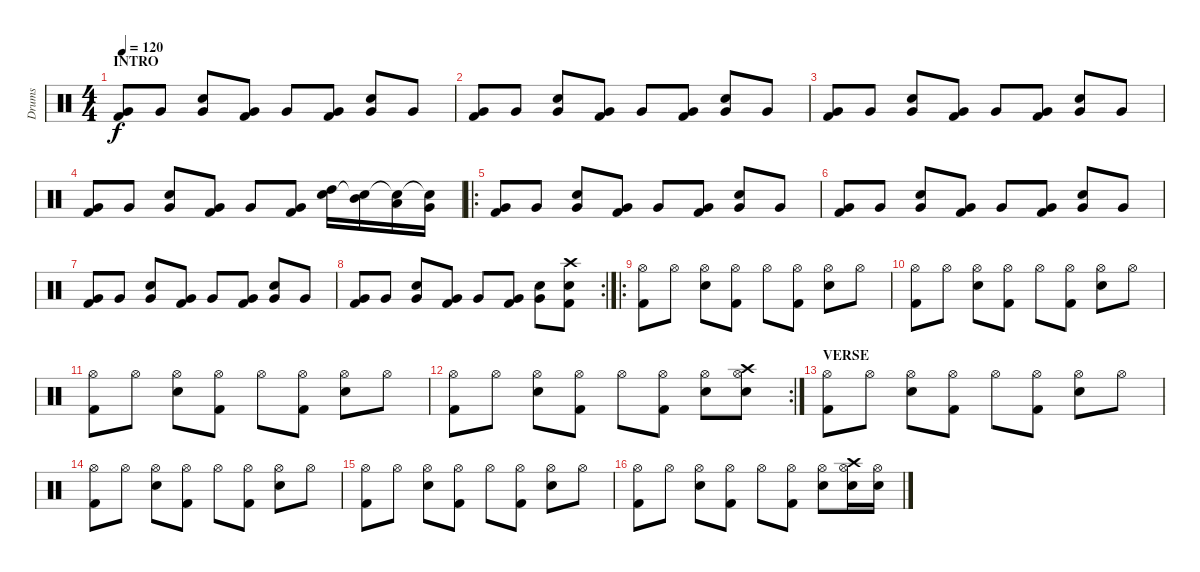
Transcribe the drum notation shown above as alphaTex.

\track ("Drums" "Drums") {instrument percussion}
\staff {score}
\articulation defaults
\ts (4 4)
\section ("" "INTRO")
\tempo 120
\clef neutral
\ks c
("Kick (hit) 2" "Very Low Tom (hit)").8{dy f} "Very Low Tom (hit)".8 ("Electric Snare (hit)" "Very Low Tom (hit)").8 ("Kick (hit) 2" "Very Low Tom (hit)").8 "Very Low Tom (hit)".8 ("Kick (hit) 2" "Very Low Tom (hit)").8 ("Electric Snare (hit)" "Very Low Tom (hit)").8 "Very Low Tom (hit)".8 |
("Kick (hit) 2" "Very Low Tom (hit)").8 "Very Low Tom (hit)".8 ("Electric Snare (hit)" "Very Low Tom (hit)").8 ("Kick (hit) 2" "Very Low Tom (hit)").8 "Very Low Tom (hit)".8 ("Kick (hit) 2" "Very Low Tom (hit)").8 ("Electric Snare (hit)" "Very Low Tom (hit)").8 "Very Low Tom (hit)".8 |
("Kick (hit) 2" "Very Low Tom (hit)").8 "Very Low Tom (hit)".8 ("Electric Snare (hit)" "Very Low Tom (hit)").8 ("Kick (hit) 2" "Very Low Tom (hit)").8 "Very Low Tom (hit)".8 ("Kick (hit) 2" "Very Low Tom (hit)").8 ("Electric Snare (hit)" "Very Low Tom (hit)").8 "Very Low Tom (hit)".8 |
("Kick (hit) 2" "Very Low Tom (hit)").8 "Very Low Tom (hit)".8 ("Electric Snare (hit)" "Very Low Tom (hit)").8 ("Kick (hit) 2" "Very Low Tom (hit)").8 "Very Low Tom (hit)".8 ("Kick (hit) 2" "Very Low Tom (hit)").8 ("Electric Snare (hit)" "High Tom (hit)").16 ("Snare (hit)"{t} "Mid Tom (hit)").16 ("Snare (hit)"{t} "Low Tom (hit)").16 ("Snare (hit)"{t} "Very Low Tom (hit)").16 |
\ro
("Kick (hit) 2" "Very Low Tom (hit)").8 "Very Low Tom (hit)".8 ("Electric Snare (hit)" "Very Low Tom (hit)").8 ("Kick (hit) 2" "Very Low Tom (hit)").8 "Very Low Tom (hit)".8 ("Kick (hit) 2" "Very Low Tom (hit)").8 ("Electric Snare (hit)" "Very Low Tom (hit)").8 "Very Low Tom (hit)".8 |
("Kick (hit) 2" "Very Low Tom (hit)").8 "Very Low Tom (hit)".8 ("Electric Snare (hit)" "Very Low Tom (hit)").8 ("Kick (hit) 2" "Very Low Tom (hit)").8 "Very Low Tom (hit)".8 ("Kick (hit) 2" "Very Low Tom (hit)").8 ("Electric Snare (hit)" "Very Low Tom (hit)").8 "Very Low Tom (hit)".8 |
("Kick (hit) 2" "Very Low Tom (hit)").8 "Very Low Tom (hit)".8 ("Electric Snare (hit)" "Very Low Tom (hit)").8 ("Kick (hit) 2" "Very Low Tom (hit)").8 "Very Low Tom (hit)".8 ("Kick (hit) 2" "Very Low Tom (hit)").8 ("Electric Snare (hit)" "Very Low Tom (hit)").8 "Very Low Tom (hit)".8 |
\rc 2
("Kick (hit) 2" "Very Low Tom (hit)").8 "Very Low Tom (hit)".8 ("Electric Snare (hit)" "Very Low Tom (hit)").8 ("Kick (hit) 2" "Very Low Tom (hit)").8 "Very Low Tom (hit)".8 ("Kick (hit) 2" "Very Low Tom (hit)").8 ("Electric Snare (hit)" "Very Low Tom (hit)").8 ("Crash high (hit)" "Electric Snare (hit)" "Kick (hit) 2").8 |
\ro
("Kick (hit) 2" "Hi-Hat (open)").8 "Hi-Hat (open)".8 ("Electric Snare (hit)" "Hi-Hat (open)").8 ("Kick (hit) 2" "Hi-Hat (open)").8 "Hi-Hat (open)".8 ("Kick (hit) 2" "Hi-Hat (open)").8 ("Electric Snare (hit)" "Hi-Hat (open)").8 "Hi-Hat (open)".8 |
("Kick (hit) 2" "Hi-Hat (open)").8 "Hi-Hat (open)".8 ("Electric Snare (hit)" "Hi-Hat (open)").8 ("Kick (hit) 2" "Hi-Hat (open)").8 "Hi-Hat (open)".8 ("Kick (hit) 2" "Hi-Hat (open)").8 ("Electric Snare (hit)" "Hi-Hat (open)").8 "Hi-Hat (open)".8 |
("Kick (hit) 2" "Hi-Hat (open)").8 "Hi-Hat (open)".8 ("Electric Snare (hit)" "Hi-Hat (open)").8 ("Kick (hit) 2" "Hi-Hat (open)").8 "Hi-Hat (open)".8 ("Kick (hit) 2" "Hi-Hat (open)").8 ("Electric Snare (hit)" "Hi-Hat (open)").8 "Hi-Hat (open)".8 |
\rc 2
("Kick (hit) 2" "Hi-Hat (open)").8 "Hi-Hat (open)".8 ("Electric Snare (hit)" "Hi-Hat (open)").8 ("Kick (hit) 2" "Hi-Hat (open)").8 "Hi-Hat (open)".8 ("Kick (hit) 2" "Hi-Hat (open)").8 ("Electric Snare (hit)" "Hi-Hat (open)").8 ("Crash high (hit)" "Electric Snare (hit)" "Hi-Hat (open)").8 |
\section ("" "VERSE")
("Kick (hit) 2" "Hi-Hat (open)").8 "Hi-Hat (open)".8 ("Electric Snare (hit)" "Hi-Hat (open)").8 ("Kick (hit) 2" "Hi-Hat (open)").8 "Hi-Hat (open)".8 ("Kick (hit) 2" "Hi-Hat (open)").8 ("Electric Snare (hit)" "Hi-Hat (open)").8 "Hi-Hat (open)".8 |
("Kick (hit) 2" "Hi-Hat (open)").8 "Hi-Hat (open)".8 ("Electric Snare (hit)" "Hi-Hat (open)").8 ("Kick (hit) 2" "Hi-Hat (open)").8 "Hi-Hat (open)".8 ("Kick (hit) 2" "Hi-Hat (open)").8 ("Electric Snare (hit)" "Hi-Hat (open)").8 "Hi-Hat (open)".8 |
("Kick (hit) 2" "Hi-Hat (open)").8 "Hi-Hat (open)".8 ("Electric Snare (hit)" "Hi-Hat (open)").8 ("Kick (hit) 2" "Hi-Hat (open)").8 "Hi-Hat (open)".8 ("Kick (hit) 2" "Hi-Hat (open)").8 ("Electric Snare (hit)" "Hi-Hat (open)").8 "Hi-Hat (open)".8 |
("Kick (hit) 2" "Hi-Hat (open)").8 "Hi-Hat (open)".8 ("Electric Snare (hit)" "Hi-Hat (open)").8 ("Kick (hit) 2" "Hi-Hat (open)").8 "Hi-Hat (open)".8 ("Kick (hit) 2" "Hi-Hat (open)").8 ("Electric Snare (hit)" "Hi-Hat (open)").8 ("Crash high (hit)" "Electric Snare (hit)" "Hi-Hat (open)").16 ("Electric Snare (hit)" "Hi-Hat (open)").16
